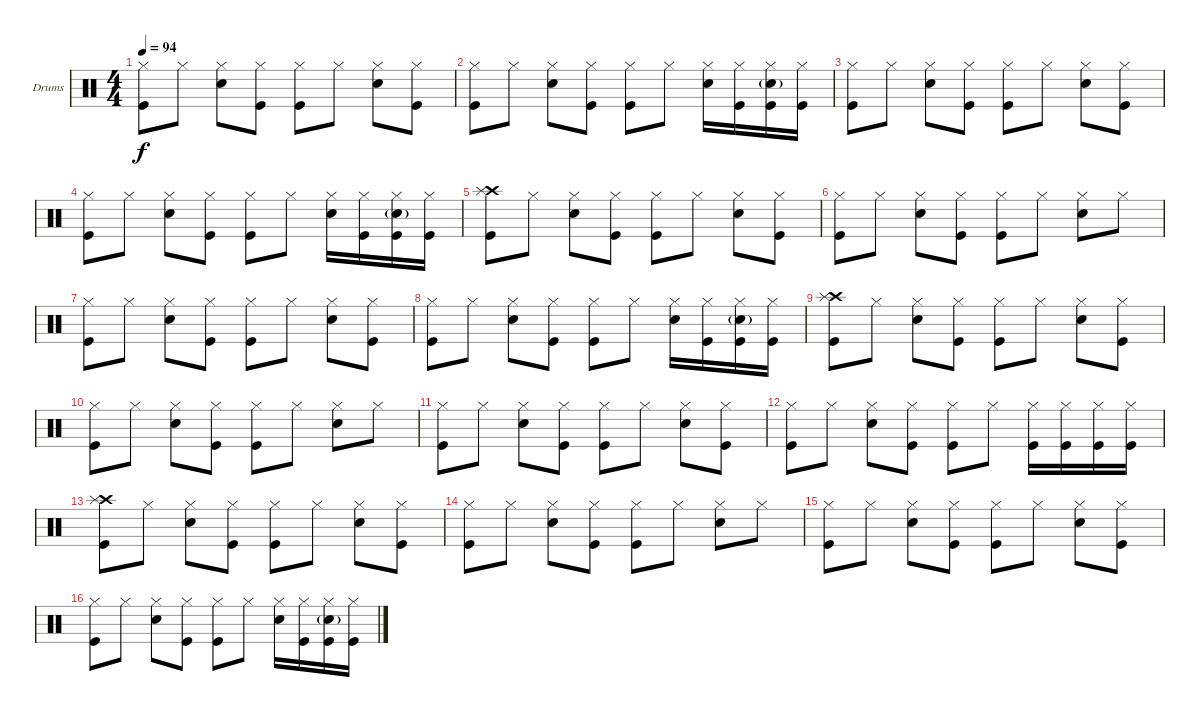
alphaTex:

\defaultSystemsLayout 4
\bracketExtendMode groupsimilarinstruments
\firstSystemTrackNameOrientation horizontal
\otherSystemsTrackNameOrientation horizontal
\track ("Drumkit" "Drums") {instrument percussion}
\staff {score}
\articulation defaults
\ts (4 4)
\tempo 94
\clef neutral
\ks c
("Kick (hit)" "Hi-Hat (closed)").8{dy f} "Hi-Hat (closed)".8 ("Hi-Hat (closed)" "Snare (hit) 2").8 ("Kick (hit)" "Hi-Hat (closed)").8 ("Kick (hit)" "Hi-Hat (closed)").8 "Hi-Hat (closed)".8 ("Snare (hit) 2" "Hi-Hat (closed)").8 ("Hi-Hat (closed)" "Kick (hit)").8 |
("Kick (hit)" "Hi-Hat (closed)").8 "Hi-Hat (closed)".8 ("Hi-Hat (closed)" "Snare (hit) 2").8 ("Hi-Hat (closed)" "Kick (hit)").8 ("Kick (hit)" "Hi-Hat (closed)").8 "Hi-Hat (closed)".8 ("Hi-Hat (closed)" "Snare (hit) 2").16 ("Hi-Hat (closed)" "Kick (hit)").16 ("Kick (hit)" "Hi-Hat (closed)" "Snare (hit) 2"{g}).16 ("Kick (hit)" "Hi-Hat (closed)").16 |
("Kick (hit)" "Hi-Hat (closed)").8 "Hi-Hat (closed)".8 ("Hi-Hat (closed)" "Snare (hit) 2").8 ("Kick (hit)" "Hi-Hat (closed)").8 ("Kick (hit)" "Hi-Hat (closed)").8 "Hi-Hat (closed)".8 ("Snare (hit) 2" "Hi-Hat (closed)").8 ("Hi-Hat (closed)" "Kick (hit)").8 |
("Kick (hit)" "Hi-Hat (closed)").8 "Hi-Hat (closed)".8 ("Hi-Hat (closed)" "Snare (hit) 2").8 ("Hi-Hat (closed)" "Kick (hit)").8 ("Kick (hit)" "Hi-Hat (closed)").8 "Hi-Hat (closed)".8 ("Hi-Hat (closed)" "Snare (hit) 2").16 ("Hi-Hat (closed)" "Kick (hit)").16 ("Kick (hit)" "Hi-Hat (closed)" "Snare (hit) 2"{g}).16 ("Kick (hit)" "Hi-Hat (closed)").16 |
("Kick (hit)" "Crash high (hit)" "Splash (hit)").8 "Hi-Hat (closed)".8 ("Hi-Hat (closed)" "Snare (hit) 2").8 ("Kick (hit)" "Hi-Hat (closed)").8 ("Kick (hit)" "Hi-Hat (closed)").8 "Hi-Hat (closed)".8 ("Snare (hit) 2" "Hi-Hat (closed)").8 ("Hi-Hat (closed)" "Kick (hit)").8 |
("Kick (hit)" "Hi-Hat (closed)").8 "Hi-Hat (closed)".8 ("Hi-Hat (closed)" "Snare (hit) 2").8 ("Hi-Hat (closed)" "Kick (hit)").8 ("Kick (hit)" "Hi-Hat (closed)").8 "Hi-Hat (closed)".8 ("Hi-Hat (closed)" "Snare (hit) 2").8 "Hi-Hat (closed)".8 |
("Kick (hit)" "Hi-Hat (closed)").8 "Hi-Hat (closed)".8 ("Hi-Hat (closed)" "Snare (hit) 2").8 ("Kick (hit)" "Hi-Hat (closed)").8 ("Kick (hit)" "Hi-Hat (closed)").8 "Hi-Hat (closed)".8 ("Snare (hit) 2" "Hi-Hat (closed)").8 ("Hi-Hat (closed)" "Kick (hit)").8 |
("Kick (hit)" "Hi-Hat (closed)").8 "Hi-Hat (closed)".8 ("Hi-Hat (closed)" "Snare (hit) 2").8 ("Hi-Hat (closed)" "Kick (hit)").8 ("Kick (hit)" "Hi-Hat (closed)").8 "Hi-Hat (closed)".8 ("Hi-Hat (closed)" "Snare (hit) 2").16 ("Hi-Hat (closed)" "Kick (hit)").16 ("Kick (hit)" "Hi-Hat (closed)" "Snare (hit) 2"{g}).16 ("Kick (hit)" "Hi-Hat (closed)").16 |
("Kick (hit)" "Crash high (hit)" "Splash (hit)").8 "Hi-Hat (closed)".8 ("Hi-Hat (closed)" "Snare (hit) 2").8 ("Kick (hit)" "Hi-Hat (closed)").8 ("Kick (hit)" "Hi-Hat (closed)").8 "Hi-Hat (closed)".8 ("Snare (hit) 2" "Hi-Hat (closed)").8 ("Hi-Hat (closed)" "Kick (hit)").8 |
("Kick (hit)" "Hi-Hat (closed)").8 "Hi-Hat (closed)".8 ("Hi-Hat (closed)" "Snare (hit) 2").8 ("Hi-Hat (closed)" "Kick (hit)").8 ("Kick (hit)" "Hi-Hat (closed)").8 "Hi-Hat (closed)".8 ("Hi-Hat (closed)" "Snare (hit) 2").8 "Hi-Hat (closed)".8 |
("Kick (hit)" "Hi-Hat (closed)").8 "Hi-Hat (closed)".8 ("Hi-Hat (closed)" "Snare (hit) 2").8 ("Kick (hit)" "Hi-Hat (closed)").8 ("Kick (hit)" "Hi-Hat (closed)").8 "Hi-Hat (closed)".8 ("Snare (hit) 2" "Hi-Hat (closed)").8 ("Hi-Hat (closed)" "Kick (hit)").8 |
("Kick (hit)" "Hi-Hat (closed)").8 "Hi-Hat (closed)".8 ("Hi-Hat (closed)" "Snare (hit) 2").8 ("Hi-Hat (closed)" "Kick (hit)").8 ("Kick (hit)" "Hi-Hat (closed)").8 "Hi-Hat (closed)".8 ("Hi-Hat (closed)" "Kick (hit)").16 ("Hi-Hat (closed)" "Kick (hit)").16 ("Kick (hit)" "Hi-Hat (closed)").16 ("Kick (hit)" "Hi-Hat (closed)").16 |
("Kick (hit)" "Crash high (hit)" "Splash (hit)").8 "Hi-Hat (closed)".8 ("Hi-Hat (closed)" "Snare (hit) 2").8 ("Kick (hit)" "Hi-Hat (closed)").8 ("Kick (hit)" "Hi-Hat (closed)").8 "Hi-Hat (closed)".8 ("Snare (hit) 2" "Hi-Hat (closed)").8 ("Hi-Hat (closed)" "Kick (hit)").8 |
("Kick (hit)" "Hi-Hat (closed)").8 "Hi-Hat (closed)".8 ("Hi-Hat (closed)" "Snare (hit) 2").8 ("Hi-Hat (closed)" "Kick (hit)").8 ("Kick (hit)" "Hi-Hat (closed)").8 "Hi-Hat (closed)".8 ("Hi-Hat (closed)" "Snare (hit) 2").8 "Hi-Hat (closed)".8 |
("Kick (hit)" "Hi-Hat (closed)").8 "Hi-Hat (closed)".8 ("Hi-Hat (closed)" "Snare (hit) 2").8 ("Kick (hit)" "Hi-Hat (closed)").8 ("Kick (hit)" "Hi-Hat (closed)").8 "Hi-Hat (closed)".8 ("Snare (hit) 2" "Hi-Hat (closed)").8 ("Hi-Hat (closed)" "Kick (hit)").8 |
("Kick (hit)" "Hi-Hat (closed)").8 "Hi-Hat (closed)".8 ("Hi-Hat (closed)" "Snare (hit) 2").8 ("Hi-Hat (closed)" "Kick (hit)").8 ("Kick (hit)" "Hi-Hat (closed)").8 "Hi-Hat (closed)".8 ("Hi-Hat (closed)" "Snare (hit) 2").16 ("Hi-Hat (closed)" "Kick (hit)").16 ("Kick (hit)" "Hi-Hat (closed)" "Snare (hit) 2"{g}).16 ("Kick (hit)" "Hi-Hat (closed)").16
